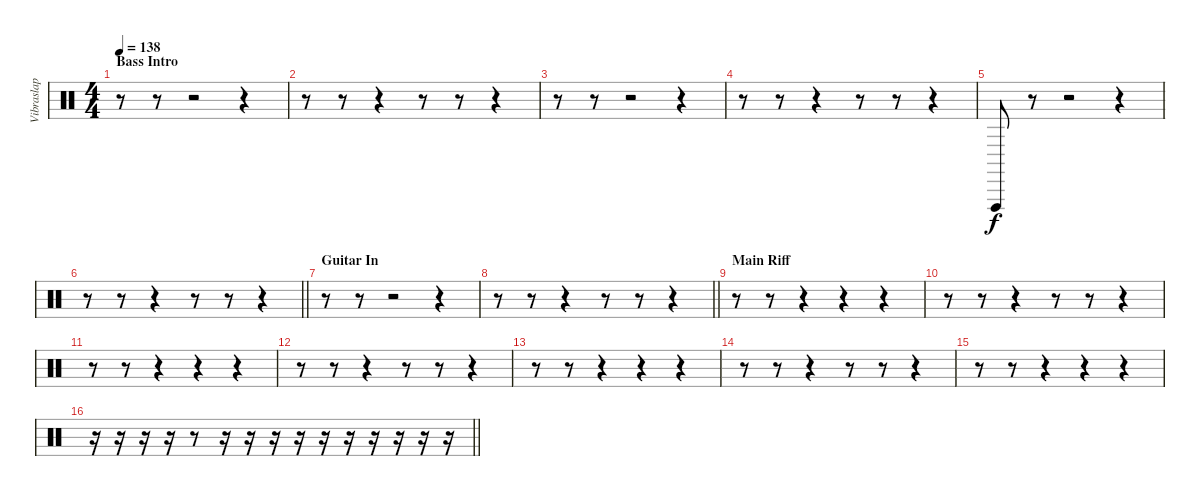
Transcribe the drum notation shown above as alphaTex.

\track ("Vibraslap" "Vibraslap") {instrument percussion}
\staff {score}
\articulation defaults
\ts (4 4)
\section ("" "Bass Intro")
\tempo 138
\clef neutral
\ks c
r.8{dy f} r.8 r.2 r.4 |
r.8 r.8 r.4 r.8 r.8 r.4 |
r.8 r.8 r.2 r.4 |
r.8 r.8 r.4 r.8 r.8 r.4 |
"Vibraslap (hit)".8 r.8 r.2 r.4 |
\barLineRight lightlight
r.8 r.8 r.4 r.8 r.8 r.4 |
\section ("" "Guitar In")
r.8 r.8 r.2 r.4 |
\barLineRight lightlight
r.8 r.8 r.4 r.8 r.8 r.4 |
\section ("" "Main Riff")
r.8 r.8 r.4 r.4 r.4 |
r.8 r.8 r.4 r.8 r.8 r.4 |
r.8 r.8 r.4 r.4 r.4 |
r.8 r.8 r.4 r.8 r.8 r.4 |
r.8 r.8 r.4 r.4 r.4 |
r.8 r.8 r.4 r.8 r.8 r.4 |
r.8 r.8 r.4 r.4 r.4 |
\barLineRight lightlight
r.16 r.16 r.16 r.16 r.8 r.16 r.16 r.16 r.16 r.16 r.16 r.16 r.16 r.16 r.16
